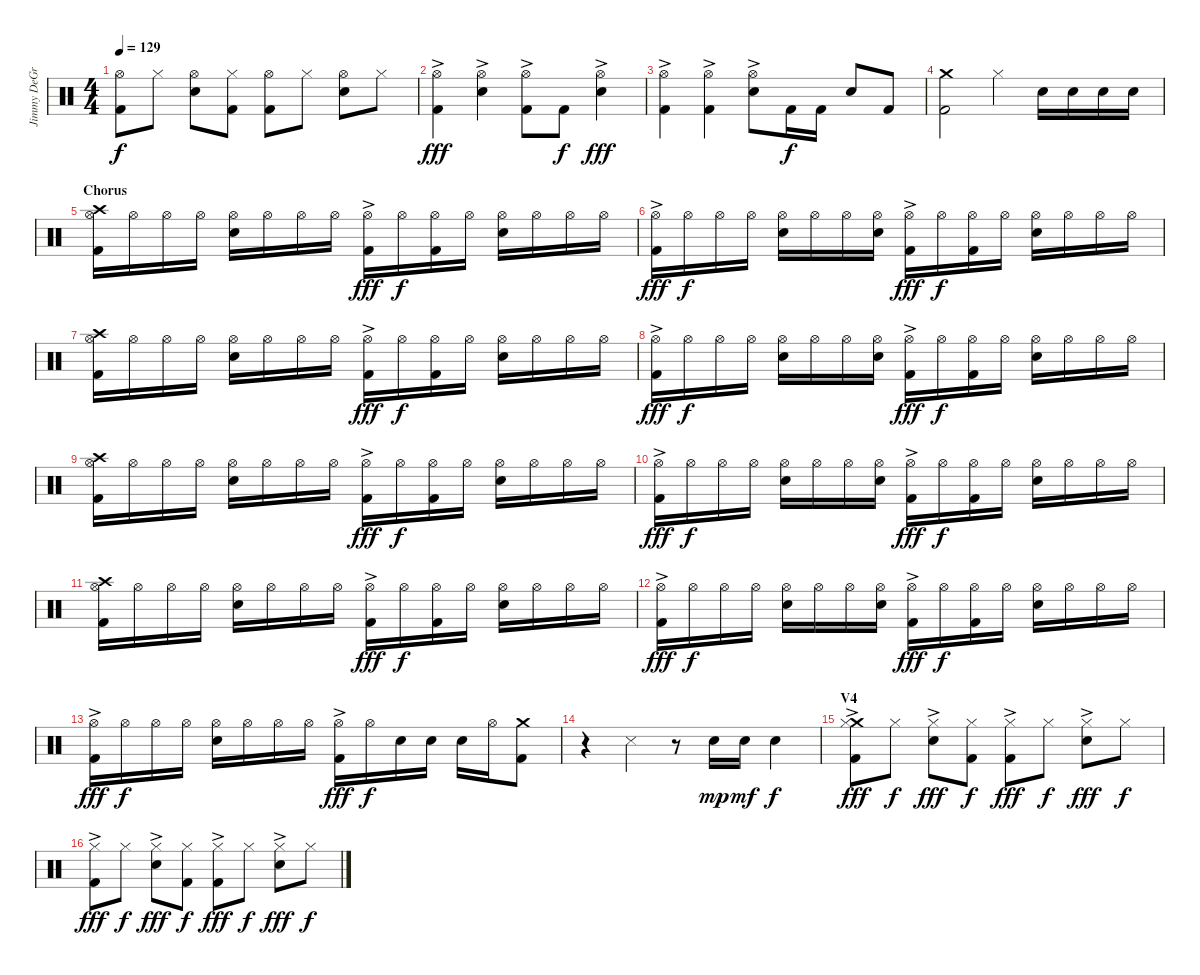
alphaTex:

\track ("Jimmy DeGrasso (Drums)" "Jimmy DeGr") {instrument percussion}
\staff {score}
\articulation defaults
\ts (4 4)
\tempo 129
\clef neutral
\ks c
("Hi-Hat (open)" "Kick (hit) 2").8{dy f} "Hi-Hat (closed)".8 ("Hi-Hat (open)" "Electric Snare (hit)").8 ("Hi-Hat (closed)" "Kick (hit) 2").8 ("Hi-Hat (open)" "Kick (hit) 2").8 "Hi-Hat (closed)".8 ("Hi-Hat (open)" "Electric Snare (hit)").8 "Hi-Hat (closed)".8 |
("Hi-Hat (open)"{ac} "Kick (hit) 2").4{dy fff} ("Hi-Hat (open)"{ac} "Electric Snare (hit)").4 ("Hi-Hat (open)"{ac} "Kick (hit) 2").8 "Kick (hit) 2".8{dy f} ("Hi-Hat (open)"{ac} "Electric Snare (hit)").4{dy fff} |
("Hi-Hat (open)"{ac} "Kick (hit) 2").4 ("Hi-Hat (open)"{ac} "Kick (hit) 2").4 ("Hi-Hat (open)"{ac} "Electric Snare (hit)").8 "Kick (hit) 2".16{dy f} "Kick (hit) 2".16 "Electric Snare (hit)".8 "Kick (hit) 2".8 |
("Crash medium (hit)" "Kick (hit) 2").2 "Hi-Hat (closed)".4 "Electric Snare (hit)".16 "Electric Snare (hit)".16 "Electric Snare (hit)".16 "Electric Snare (hit)".16 |
\section ("" "Chorus")
("Crash high (hit)" "Hi-Hat (open)" "Kick (hit) 2").16 "Hi-Hat (open)".16 "Hi-Hat (open)".16 "Hi-Hat (open)".16 ("Hi-Hat (open)" "Electric Snare (hit)").16 "Hi-Hat (open)".16 "Hi-Hat (open)".16 "Hi-Hat (open)".16 ("Hi-Hat (open)"{ac} "Kick (hit) 2").16{dy fff} "Hi-Hat (open)".16{dy f} ("Hi-Hat (open)" "Kick (hit) 2").16 "Hi-Hat (open)".16 ("Hi-Hat (open)" "Electric Snare (hit)").16 "Hi-Hat (open)".16 "Hi-Hat (open)".16 "Hi-Hat (open)".16 |
("Hi-Hat (open)"{ac} "Kick (hit) 2").16{dy fff} "Hi-Hat (open)".16{dy f} "Hi-Hat (open)".16 "Hi-Hat (open)".16 ("Hi-Hat (open)" "Electric Snare (hit)").16 "Hi-Hat (open)".16 "Hi-Hat (open)".16 ("Hi-Hat (open)" "Electric Snare (hit)").16 ("Hi-Hat (open)"{ac} "Kick (hit) 2").16{dy fff} "Hi-Hat (open)".16{dy f} ("Hi-Hat (open)" "Kick (hit) 2").16 "Hi-Hat (open)".16 ("Hi-Hat (open)" "Electric Snare (hit)").16 "Hi-Hat (open)".16 "Hi-Hat (open)".16 "Hi-Hat (open)".16 |
("Crash high (hit)" "Hi-Hat (open)" "Kick (hit) 2").16 "Hi-Hat (open)".16 "Hi-Hat (open)".16 "Hi-Hat (open)".16 ("Hi-Hat (open)" "Electric Snare (hit)").16 "Hi-Hat (open)".16 "Hi-Hat (open)".16 "Hi-Hat (open)".16 ("Hi-Hat (open)"{ac} "Kick (hit) 2").16{dy fff} "Hi-Hat (open)".16{dy f} ("Hi-Hat (open)" "Kick (hit) 2").16 "Hi-Hat (open)".16 ("Hi-Hat (open)" "Electric Snare (hit)").16 "Hi-Hat (open)".16 "Hi-Hat (open)".16 "Hi-Hat (open)".16 |
("Hi-Hat (open)"{ac} "Kick (hit) 2").16{dy fff} "Hi-Hat (open)".16{dy f} "Hi-Hat (open)".16 "Hi-Hat (open)".16 ("Hi-Hat (open)" "Electric Snare (hit)").16 "Hi-Hat (open)".16 "Hi-Hat (open)".16 ("Hi-Hat (open)" "Electric Snare (hit)").16 ("Hi-Hat (open)"{ac} "Kick (hit) 2").16{dy fff} "Hi-Hat (open)".16{dy f} ("Hi-Hat (open)" "Kick (hit) 2").16 "Hi-Hat (open)".16 ("Hi-Hat (open)" "Electric Snare (hit)").16 "Hi-Hat (open)".16 "Hi-Hat (open)".16 "Hi-Hat (open)".16 |
("Crash high (hit)" "Hi-Hat (open)" "Kick (hit) 2").16 "Hi-Hat (open)".16 "Hi-Hat (open)".16 "Hi-Hat (open)".16 ("Hi-Hat (open)" "Electric Snare (hit)").16 "Hi-Hat (open)".16 "Hi-Hat (open)".16 "Hi-Hat (open)".16 ("Hi-Hat (open)"{ac} "Kick (hit) 2").16{dy fff} "Hi-Hat (open)".16{dy f} ("Hi-Hat (open)" "Kick (hit) 2").16 "Hi-Hat (open)".16 ("Hi-Hat (open)" "Electric Snare (hit)").16 "Hi-Hat (open)".16 "Hi-Hat (open)".16 "Hi-Hat (open)".16 |
("Hi-Hat (open)"{ac} "Kick (hit) 2").16{dy fff} "Hi-Hat (open)".16{dy f} "Hi-Hat (open)".16 "Hi-Hat (open)".16 ("Hi-Hat (open)" "Electric Snare (hit)").16 "Hi-Hat (open)".16 "Hi-Hat (open)".16 ("Hi-Hat (open)" "Electric Snare (hit)").16 ("Hi-Hat (open)"{ac} "Kick (hit) 2").16{dy fff} "Hi-Hat (open)".16{dy f} ("Hi-Hat (open)" "Kick (hit) 2").16 "Hi-Hat (open)".16 ("Hi-Hat (open)" "Electric Snare (hit)").16 "Hi-Hat (open)".16 "Hi-Hat (open)".16 "Hi-Hat (open)".16 |
("Crash high (hit)" "Hi-Hat (open)" "Kick (hit) 2").16 "Hi-Hat (open)".16 "Hi-Hat (open)".16 "Hi-Hat (open)".16 ("Hi-Hat (open)" "Electric Snare (hit)").16 "Hi-Hat (open)".16 "Hi-Hat (open)".16 "Hi-Hat (open)".16 ("Hi-Hat (open)"{ac} "Kick (hit) 2").16{dy fff} "Hi-Hat (open)".16{dy f} ("Hi-Hat (open)" "Kick (hit) 2").16 "Hi-Hat (open)".16 ("Hi-Hat (open)" "Electric Snare (hit)").16 "Hi-Hat (open)".16 "Hi-Hat (open)".16 "Hi-Hat (open)".16 |
("Hi-Hat (open)"{ac} "Kick (hit) 2").16{dy fff} "Hi-Hat (open)".16{dy f} "Hi-Hat (open)".16 "Hi-Hat (open)".16 ("Hi-Hat (open)" "Electric Snare (hit)").16 "Hi-Hat (open)".16 "Hi-Hat (open)".16 ("Hi-Hat (open)" "Electric Snare (hit)").16 ("Hi-Hat (open)"{ac} "Kick (hit) 2").16{dy fff} "Hi-Hat (open)".16{dy f} ("Hi-Hat (open)" "Kick (hit) 2").16 "Hi-Hat (open)".16 ("Hi-Hat (open)" "Electric Snare (hit)").16 "Hi-Hat (open)".16 "Hi-Hat (open)".16 "Hi-Hat (open)".16 |
("Hi-Hat (open)"{ac} "Kick (hit) 2").16{dy fff} "Hi-Hat (open)".16{dy f} "Hi-Hat (open)".16 "Hi-Hat (open)".16 ("Hi-Hat (open)" "Electric Snare (hit)").16 "Hi-Hat (open)".16 "Hi-Hat (open)".16 "Hi-Hat (open)".16 ("Hi-Hat (open)"{ac} "Kick (hit) 2").16{dy fff} "Hi-Hat (open)".16{dy f} "Electric Snare (hit)".16 "Electric Snare (hit)".16 "Electric Snare (hit)".16 "Hi-Hat (open)".16 ("Crash medium (hit)" "Kick (hit) 2").8 |
r.4 "Snare (side stick) 3".4 r.8 "Electric Snare (hit)".16{dy mp} "Electric Snare (hit)".16{dy mf} "Electric Snare (hit)".4{dy f} |
\section ("" "V4")
("Crash medium (hit)" "Hi-Hat (closed)"{ac} "Kick (hit) 2").8{dy fff} "Hi-Hat (closed)".8{dy f} ("Hi-Hat (closed)"{ac} "Electric Snare (hit)").8{dy fff} ("Hi-Hat (closed)" "Kick (hit) 2").8{dy f} ("Hi-Hat (closed)"{ac} "Kick (hit) 2").8{dy fff} "Hi-Hat (closed)".8{dy f} ("Hi-Hat (closed)"{ac} "Electric Snare (hit)").8{dy fff} "Hi-Hat (closed)".8{dy f} |
("Hi-Hat (closed)"{ac} "Kick (hit) 2").8{dy fff} "Hi-Hat (closed)".8{dy f} ("Hi-Hat (closed)"{ac} "Electric Snare (hit)").8{dy fff} ("Hi-Hat (closed)" "Kick (hit) 2").8{dy f} ("Hi-Hat (closed)"{ac} "Kick (hit) 2").8{dy fff} "Hi-Hat (closed)".8{dy f} ("Hi-Hat (closed)"{ac} "Electric Snare (hit)").8{dy fff} "Hi-Hat (closed)".8{dy f}
